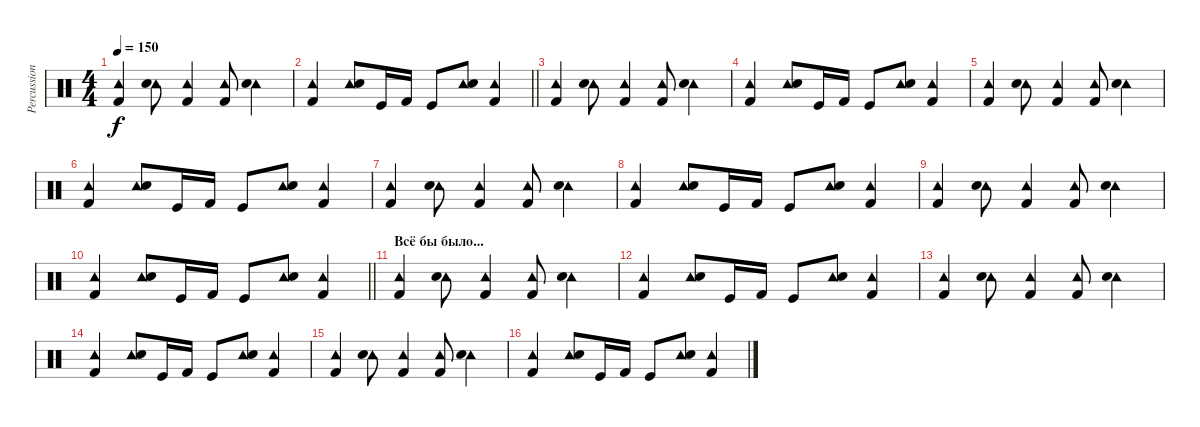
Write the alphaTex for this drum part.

\track ("Percussion" "Percussion") {instrument percussion bank 3}
\staff {score}
\articulation defaults
\ts (4 4)
\tempo 150
\clef neutral
\ks c
("Tambourine (hit)" "Kick (hit) 2").4{dy f} ("Tambourine (hit)" "Snare (hit) 2").8 ("Tambourine (hit)" "Kick (hit) 2").4 ("Tambourine (hit)" "Kick (hit) 2").8 ("Tambourine (hit)" "Snare (hit) 2").4 |
\barLineRight lightlight
("Tambourine (hit)" "Kick (hit) 2").4 ("Tambourine (hit)" "Snare (hit) 2").8 "Kick (hit)".16 "Kick (hit) 2".16 "Kick (hit)".8 ("Tambourine (hit)" "Snare (hit) 2").8 ("Tambourine (hit)" "Kick (hit) 2").4 |
("Tambourine (hit)" "Kick (hit) 2").4 ("Tambourine (hit)" "Snare (hit) 2").8 ("Tambourine (hit)" "Kick (hit) 2").4 ("Tambourine (hit)" "Kick (hit) 2").8 ("Tambourine (hit)" "Snare (hit) 2").4 |
("Tambourine (hit)" "Kick (hit) 2").4 ("Tambourine (hit)" "Snare (hit) 2").8 "Kick (hit)".16 "Kick (hit) 2".16 "Kick (hit)".8 ("Tambourine (hit)" "Snare (hit) 2").8 ("Tambourine (hit)" "Kick (hit) 2").4 |
("Tambourine (hit)" "Kick (hit) 2").4 ("Tambourine (hit)" "Snare (hit) 2").8 ("Tambourine (hit)" "Kick (hit) 2").4 ("Tambourine (hit)" "Kick (hit) 2").8 ("Tambourine (hit)" "Snare (hit) 2").4 |
("Tambourine (hit)" "Kick (hit) 2").4 ("Tambourine (hit)" "Snare (hit) 2").8 "Kick (hit)".16 "Kick (hit) 2".16 "Kick (hit)".8 ("Tambourine (hit)" "Snare (hit) 2").8 ("Tambourine (hit)" "Kick (hit) 2").4 |
("Tambourine (hit)" "Kick (hit) 2").4 ("Tambourine (hit)" "Snare (hit) 2").8 ("Tambourine (hit)" "Kick (hit) 2").4 ("Tambourine (hit)" "Kick (hit) 2").8 ("Tambourine (hit)" "Snare (hit) 2").4 |
("Tambourine (hit)" "Kick (hit) 2").4 ("Tambourine (hit)" "Snare (hit) 2").8 "Kick (hit)".16 "Kick (hit) 2".16 "Kick (hit)".8 ("Tambourine (hit)" "Snare (hit) 2").8 ("Tambourine (hit)" "Kick (hit) 2").4 |
("Tambourine (hit)" "Kick (hit) 2").4 ("Tambourine (hit)" "Snare (hit) 2").8 ("Tambourine (hit)" "Kick (hit) 2").4 ("Tambourine (hit)" "Kick (hit) 2").8 ("Tambourine (hit)" "Snare (hit) 2").4 |
\barLineRight lightlight
("Tambourine (hit)" "Kick (hit) 2").4 ("Tambourine (hit)" "Snare (hit) 2").8 "Kick (hit)".16 "Kick (hit) 2".16 "Kick (hit)".8 ("Tambourine (hit)" "Snare (hit) 2").8 ("Tambourine (hit)" "Kick (hit) 2").4 |
\section ("" "Всё бы было...")
("Tambourine (hit)" "Kick (hit) 2").4 ("Tambourine (hit)" "Snare (hit) 2").8 ("Tambourine (hit)" "Kick (hit) 2").4 ("Tambourine (hit)" "Kick (hit) 2").8 ("Tambourine (hit)" "Snare (hit) 2").4 |
("Tambourine (hit)" "Kick (hit) 2").4 ("Tambourine (hit)" "Snare (hit) 2").8 "Kick (hit)".16 "Kick (hit) 2".16 "Kick (hit)".8 ("Tambourine (hit)" "Snare (hit) 2").8 ("Tambourine (hit)" "Kick (hit) 2").4 |
("Tambourine (hit)" "Kick (hit) 2").4 ("Tambourine (hit)" "Snare (hit) 2").8 ("Tambourine (hit)" "Kick (hit) 2").4 ("Tambourine (hit)" "Kick (hit) 2").8 ("Tambourine (hit)" "Snare (hit) 2").4 |
("Tambourine (hit)" "Kick (hit) 2").4 ("Tambourine (hit)" "Snare (hit) 2").8 "Kick (hit)".16 "Kick (hit) 2".16 "Kick (hit)".8 ("Tambourine (hit)" "Snare (hit) 2").8 ("Tambourine (hit)" "Kick (hit) 2").4 |
("Tambourine (hit)" "Kick (hit) 2").4 ("Tambourine (hit)" "Snare (hit) 2").8 ("Tambourine (hit)" "Kick (hit) 2").4 ("Tambourine (hit)" "Kick (hit) 2").8 ("Tambourine (hit)" "Snare (hit) 2").4 |
("Tambourine (hit)" "Kick (hit) 2").4 ("Tambourine (hit)" "Snare (hit) 2").8 "Kick (hit)".16 "Kick (hit) 2".16 "Kick (hit)".8 ("Tambourine (hit)" "Snare (hit) 2").8 ("Tambourine (hit)" "Kick (hit) 2").4
